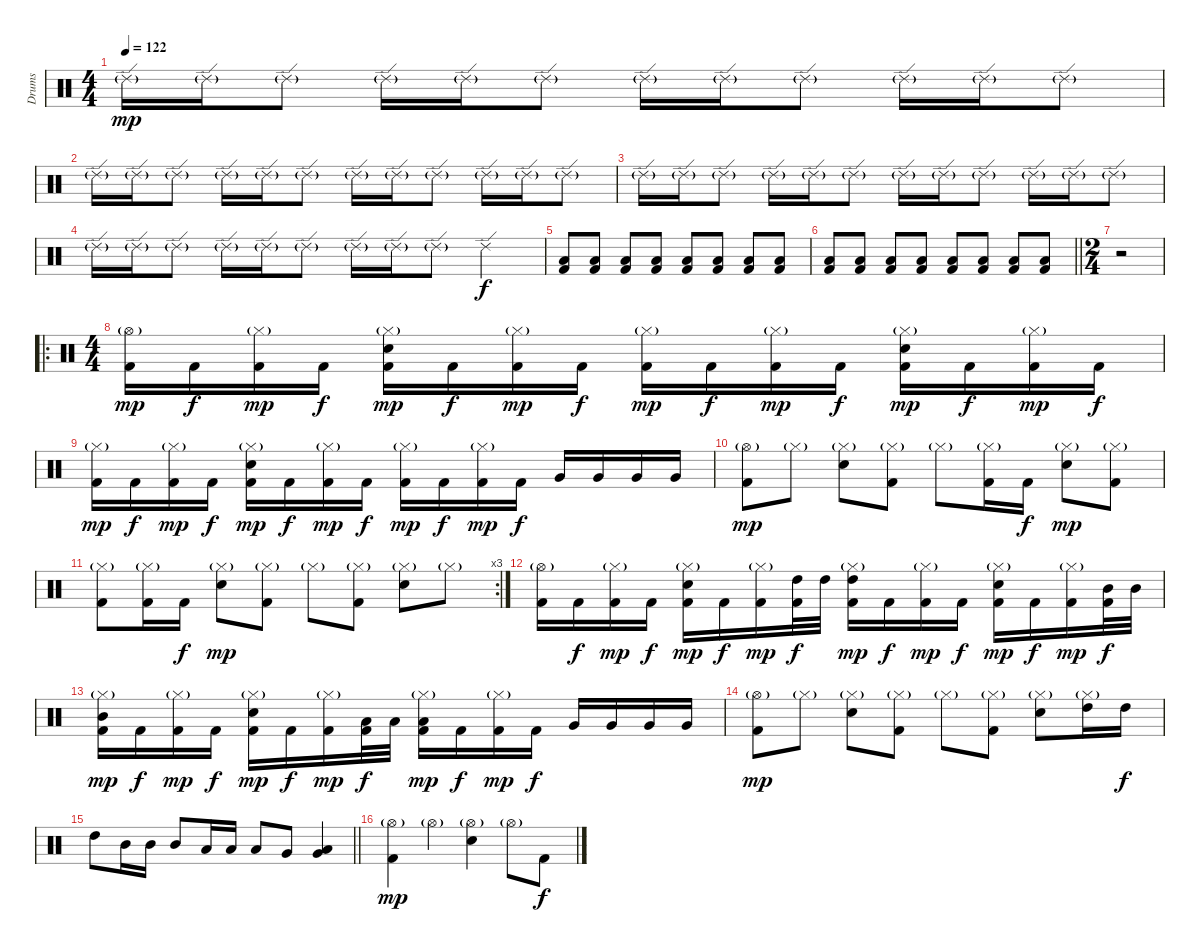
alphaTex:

\track ("Drums" "Drums") {instrument percussion}
\staff {score}
\articulation defaults
\ts (4 4)
\tempo 122
\clef neutral
\ks c "Ride (edge) 2"{g}.16{dy mp} "Ride (edge) 2"{g}.16 "Ride (edge) 2"{g}.8 "Ride (edge) 2"{g}.16 "Ride (edge) 2"{g}.16 "Ride (edge) 2"{g}.8 "Ride (edge) 2"{g}.16 "Ride (edge) 2"{g}.16 "Ride (edge) 2"{g}.8 "Ride (edge) 2"{g}.16 "Ride (edge) 2"{g}.16 "Ride (edge) 2"{g}.8
|
"Ride (edge) 2"{g}.16 "Ride (edge) 2"{g}.16 "Ride (edge) 2"{g}.8 "Ride (edge) 2"{g}.16 "Ride (edge) 2"{g}.16 "Ride (edge) 2"{g}.8 "Ride (edge) 2"{g}.16 "Ride (edge) 2"{g}.16 "Ride (edge) 2"{g}.8 "Ride (edge) 2"{g}.16 "Ride (edge) 2"{g}.16 "Ride (edge) 2"{g}.8 |
"Ride (edge) 2"{g}.16 "Ride (edge) 2"{g}.16 "Ride (edge) 2"{g}.8 "Ride (edge) 2"{g}.16 "Ride (edge) 2"{g}.16 "Ride (edge) 2"{g}.8 "Ride (edge) 2"{g}.16 "Ride (edge) 2"{g}.16 "Ride (edge) 2"{g}.8 "Ride (edge) 2"{g}.16 "Ride (edge) 2"{g}.16 "Ride (edge) 2"{g}.8 |
"Ride (edge) 2"{g}.16 "Ride (edge) 2"{g}.16 "Ride (edge) 2"{g}.8 "Ride (edge) 2"{g}.16 "Ride (edge) 2"{g}.16 "Ride (edge) 2"{g}.8 "Ride (edge) 2"{g}.16 "Ride (edge) 2"{g}.16 "Ride (edge) 2"{g}.8 "Ride (edge) 2".4{dy f} |
("Low Floor Tom (hit)" "Kick (hit) 2").8{volume 8} ("Low Floor Tom (hit)" "Kick (hit) 2").8 ("Low Floor Tom (hit)" "Kick (hit) 2").8 ("Low Floor Tom (hit)" "Kick (hit) 2").8 ("Low Floor Tom (hit)" "Kick (hit) 2").8{volume 10} ("Low Floor Tom (hit)" "Kick (hit) 2").8 ("Low Floor Tom (hit)" "Kick (hit) 2").8 ("Low Floor Tom (hit)" "Kick (hit) 2").8 |
\barLineRight lightlight
("Low Floor Tom (hit)" "Kick (hit) 2").8{volume 12} ("Low Floor Tom (hit)" "Kick (hit) 2").8 ("Low Floor Tom (hit)" "Kick (hit) 2").8 ("Low Floor Tom (hit)" "Kick (hit) 2").8 ("Low Floor Tom (hit)" "Kick (hit) 2").8 ("Low Floor Tom (hit)" "Kick (hit) 2").8 ("Low Floor Tom (hit)" "Kick (hit) 2").8 ("Low Floor Tom (hit)" "Kick (hit) 2").8{volume 16} |
\ts (2 4)
r.2 |
\ro
\ts (4 4)
("Hi-Hat (open)"{g} "Kick (hit) 2").16{dy mp} "Kick (hit) 2".16{dy f} ("Hi-Hat (closed)"{g} "Kick (hit) 2").16{dy mp} "Kick (hit) 2".16{dy f} ("Hi-Hat (closed)"{g} "Electric Snare (hit)" "Kick (hit) 2").16{dy mp} "Kick (hit) 2".16{dy f} ("Hi-Hat (closed)"{g} "Kick (hit) 2").16{dy mp} "Kick (hit) 2".16{dy f} ("Hi-Hat (closed)"{g} "Kick (hit) 2").16{dy mp} "Kick (hit) 2".16{dy f} ("Hi-Hat (closed)"{g} "Kick (hit) 2").16{dy mp} "Kick (hit) 2".16{dy f} ("Hi-Hat (closed)"{g} "Electric Snare (hit)" "Kick (hit) 2").16{dy mp} "Kick (hit) 2".16{dy f} ("Hi-Hat (closed)"{g} "Kick (hit) 2").16{dy mp} "Kick (hit) 2".16{dy f} |
("Hi-Hat (closed)"{g} "Kick (hit) 2").16{dy mp} "Kick (hit) 2".16{dy f} ("Hi-Hat (closed)"{g} "Kick (hit) 2").16{dy mp} "Kick (hit) 2".16{dy f} ("Hi-Hat (closed)"{g} "Electric Snare (hit)" "Kick (hit) 2").16{dy mp} "Kick (hit) 2".16{dy f} ("Hi-Hat (closed)"{g} "Kick (hit) 2").16{dy mp} "Kick (hit) 2".16{dy f} ("Hi-Hat (closed)"{g} "Kick (hit) 2").16{dy mp} "Kick (hit) 2".16{dy f} ("Hi-Hat (closed)"{g} "Kick (hit) 2").16{dy mp} "Kick (hit) 2".16{dy f} "Very Low Tom (hit)".16 "Very Low Tom (hit)".16 "Very Low Tom (hit)".16 "Very Low Tom (hit)".16 |
("Hi-Hat (open)"{g} "Kick (hit) 2").8{dy mp} "Hi-Hat (closed)"{g}.8 ("Hi-Hat (closed)"{g} "Electric Snare (hit)").8 ("Hi-Hat (closed)"{g} "Kick (hit) 2").8 "Hi-Hat (closed)"{g}.8 ("Hi-Hat (closed)"{g} "Kick (hit) 2").16 "Kick (hit) 2".16{dy f} ("Hi-Hat (closed)"{g} "Electric Snare (hit)").8{dy mp} ("Hi-Hat (closed)"{g} "Kick (hit) 2").8 |
\rc 3
("Hi-Hat (closed)"{g} "Kick (hit) 2").8 ("Hi-Hat (closed)"{g} "Kick (hit) 2").16 "Kick (hit) 2".16{dy f} ("Hi-Hat (closed)"{g} "Electric Snare (hit)").8{dy mp} ("Hi-Hat (closed)"{g} "Kick (hit) 2").8 "Hi-Hat (closed)"{g}.8 ("Hi-Hat (closed)"{g} "Kick (hit) 2").8 ("Hi-Hat (closed)"{g} "Electric Snare (hit)").8 "Hi-Hat (closed)"{g}.8 |
("Hi-Hat (open)"{g} "Kick (hit) 2").16 "Kick (hit) 2".16{dy f} ("Hi-Hat (closed)"{g} "Kick (hit) 2").16{dy mp} "Kick (hit) 2".16{dy f} ("Hi-Hat (closed)"{g} "Electric Snare (hit)" "Kick (hit) 2").16{dy mp} "Kick (hit) 2".16{dy f} ("Hi-Hat (closed)"{g} "Kick (hit) 2").16{dy mp} ("High Tom (hit)" "Kick (hit) 2").32{dy f} "High Tom (hit)".32 ("Hi-Hat (closed)"{g} "High Tom (hit)" "Kick (hit) 2").16{dy mp} "Kick (hit) 2".16{dy f} ("Hi-Hat (closed)"{g} "Kick (hit) 2").16{dy mp} "Kick (hit) 2".16{dy f} ("Hi-Hat (closed)"{g} "Electric Snare (hit)" "Kick (hit) 2").16{dy mp} "Kick (hit) 2".16{dy f} ("Hi-Hat (closed)"{g} "Kick (hit) 2").16{dy mp} ("Mid Tom (hit)" "Kick (hit) 2").32{dy f} "Mid Tom (hit)".32 |
("Hi-Hat (closed)"{g} "Mid Tom (hit)" "Kick (hit) 2").16{dy mp} "Kick (hit) 2".16{dy f} ("Hi-Hat (closed)"{g} "Kick (hit) 2").16{dy mp} "Kick (hit) 2".16{dy f} ("Hi-Hat (closed)"{g} "Electric Snare (hit)" "Kick (hit) 2").16{dy mp} "Kick (hit) 2".16{dy f} ("Hi-Hat (closed)"{g} "Kick (hit) 2").16{dy mp} ("Low Tom (hit)" "Kick (hit) 2").32{dy f} "Low Tom (hit)".32 ("Hi-Hat (closed)"{g} "Low Tom (hit)" "Kick (hit) 2").16{dy mp} "Kick (hit) 2".16{dy f} ("Hi-Hat (closed)"{g} "Kick (hit) 2").16{dy mp} "Kick (hit) 2".16{dy f} "Very Low Tom (hit)".16 "Very Low Tom (hit)".16 "Very Low Tom (hit)".16 "Very Low Tom (hit)".16 |
("Hi-Hat (open)"{g} "Kick (hit) 2").8{dy mp} "Hi-Hat (closed)"{g}.8 ("Hi-Hat (closed)"{g} "Electric Snare (hit)").8 ("Hi-Hat (closed)"{g} "Kick (hit) 2").8 "Hi-Hat (closed)"{g}.8 ("Hi-Hat (closed)"{g} "Kick (hit) 2").8 ("Hi-Hat (closed)"{g} "Electric Snare (hit)").8 ("Hi-Hat (closed)"{g} "High Tom (hit)").16 "High Tom (hit)".16{dy f} |
\barLineRight lightlight "High Tom (hit)".8 "Mid Tom (hit)".16 "Mid Tom (hit)".16 "Mid Tom (hit)".8 "Low Tom (hit)".16 "Low Tom (hit)".16 "Low Tom (hit)".8 "Very Low Tom (hit)".8
("Very Low Tom (hit)" "Low Floor Tom (hit)").4 |
("Hi-Hat (open)"{g} "Kick (hit) 2").4{dy mp} "Hi-Hat (open)"{g}.4 ("Hi-Hat (open)"{g} "Electric Snare (hit)").4 "Hi-Hat (open)"{g}.8 "Kick (hit) 2".8{dy f}
